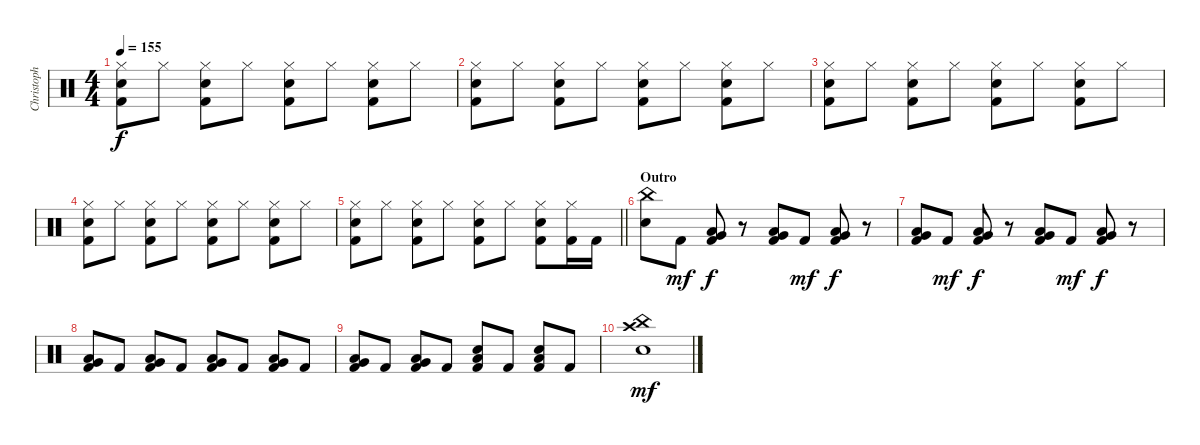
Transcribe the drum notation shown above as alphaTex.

\track ("Christoph \"Doom\" Schneider" "Christoph ") {instrument percussion}
\staff {score}
\articulation defaults
\ts (4 4)
\tempo 155
\clef neutral
\ks c
("Hi-Hat (closed)" "Snare (hit) 2" "Kick (hit) 2").8{dy f} "Hi-Hat (closed)".8 ("Hi-Hat (closed)" "Snare (hit) 2" "Kick (hit) 2").8 "Hi-Hat (closed)".8 ("Hi-Hat (closed)" "Snare (hit) 2" "Kick (hit) 2").8 "Hi-Hat (closed)".8 ("Hi-Hat (closed)" "Snare (hit) 2" "Kick (hit) 2").8 "Hi-Hat (closed)".8 |
("Hi-Hat (closed)" "Snare (hit) 2" "Kick (hit) 2").8 "Hi-Hat (closed)".8 ("Hi-Hat (closed)" "Snare (hit) 2" "Kick (hit) 2").8 "Hi-Hat (closed)".8 ("Hi-Hat (closed)" "Snare (hit) 2" "Kick (hit) 2").8 "Hi-Hat (closed)".8 ("Hi-Hat (closed)" "Snare (hit) 2" "Kick (hit) 2").8 "Hi-Hat (closed)".8 |
("Hi-Hat (closed)" "Snare (hit) 2" "Kick (hit) 2").8 "Hi-Hat (closed)".8 ("Hi-Hat (closed)" "Snare (hit) 2" "Kick (hit) 2").8 "Hi-Hat (closed)".8 ("Hi-Hat (closed)" "Snare (hit) 2" "Kick (hit) 2").8 "Hi-Hat (closed)".8 ("Hi-Hat (closed)" "Snare (hit) 2" "Kick (hit) 2").8 "Hi-Hat (closed)".8 |
("Hi-Hat (closed)" "Snare (hit) 2" "Kick (hit) 2").8 "Hi-Hat (closed)".8 ("Hi-Hat (closed)" "Snare (hit) 2" "Kick (hit) 2").8 "Hi-Hat (closed)".8 ("Hi-Hat (closed)" "Snare (hit) 2" "Kick (hit) 2").8 "Hi-Hat (closed)".8 ("Hi-Hat (closed)" "Snare (hit) 2" "Kick (hit) 2").8 "Hi-Hat (closed)".8 |
\barLineRight lightlight
("Hi-Hat (closed)" "Snare (hit) 2" "Kick (hit) 2").8 "Hi-Hat (closed)".8 ("Hi-Hat (closed)" "Snare (hit) 2" "Kick (hit) 2").8 "Hi-Hat (closed)".8 ("Hi-Hat (closed)" "Snare (hit) 2" "Kick (hit) 2").8 "Hi-Hat (closed)".8 ("Hi-Hat (closed)" "Snare (hit) 2" "Kick (hit) 2").8 ("Hi-Hat (closed)" "Kick (hit) 2").16 "Kick (hit) 2".16 |
\section ("" "Outro")
("China (hit)" "Snare (hit) 2").8 "Kick (hit) 2".8{dy mf} ("Very Low Tom (hit)" "Low Floor Tom (hit)" "Kick (hit) 2").8{dy f} r.8 ("Very Low Tom (hit)" "Low Floor Tom (hit)" "Kick (hit) 2").8 "Kick (hit) 2".8{dy mf} ("Very Low Tom (hit)" "Low Floor Tom (hit)" "Kick (hit) 2").8{dy f} r.8 |
("Very Low Tom (hit)" "Low Floor Tom (hit)" "Kick (hit) 2").8 "Kick (hit) 2".8{dy mf} ("Very Low Tom (hit)" "Low Floor Tom (hit)" "Kick (hit) 2").8{dy f} r.8 ("Very Low Tom (hit)" "Low Floor Tom (hit)" "Kick (hit) 2").8 "Kick (hit) 2".8{dy mf} ("Very Low Tom (hit)" "Low Floor Tom (hit)" "Kick (hit) 2").8{dy f} r.8 |
("Very Low Tom (hit)" "Low Floor Tom (hit)" "Kick (hit) 2").8 "Kick (hit) 2".8 ("Very Low Tom (hit)" "Low Floor Tom (hit)" "Kick (hit) 2").8 "Kick (hit) 2".8 ("Very Low Tom (hit)" "Low Floor Tom (hit)" "Kick (hit) 2").8 "Kick (hit) 2".8 ("Very Low Tom (hit)" "Low Floor Tom (hit)" "Kick (hit) 2").8 "Kick (hit) 2".8 |
("Very Low Tom (hit)" "Low Floor Tom (hit)" "Kick (hit) 2").8 "Kick (hit) 2".8 ("Very Low Tom (hit)" "Low Floor Tom (hit)" "Kick (hit) 2").8 "Kick (hit) 2".8 ("Snare (hit) 2" "Low Floor Tom (hit)" "Kick (hit) 2").8 "Kick (hit) 2".8 ("Snare (hit) 2" "Low Floor Tom (hit)" "Kick (hit) 2").8 "Kick (hit) 2".8 |
("Crash high (hit)" "China (hit)" "Snare (hit) 2").1{dy mf}
